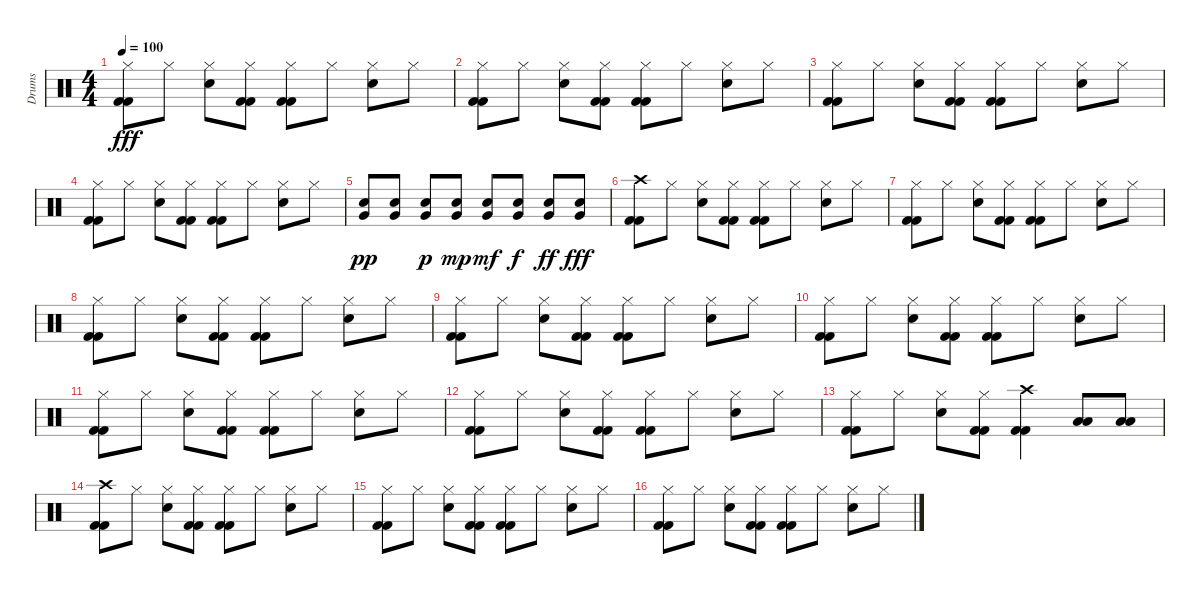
\track ("Drums" "Drums") {instrument percussion}
\staff {score}
\articulation defaults
\ts (4 4)
\tempo 100
\clef neutral
\ks c
("Hi-Hat (closed)" "Kick (hit) 2" "Kick (hit) 2").8{dy fff} "Hi-Hat (closed)".8 ("Hi-Hat (closed)" "Electric Snare (hit)").8 ("Hi-Hat (closed)" "Kick (hit) 2" "Kick (hit) 2").8 ("Hi-Hat (closed)" "Kick (hit) 2" "Kick (hit) 2").8 "Hi-Hat (closed)".8 ("Hi-Hat (closed)" "Electric Snare (hit)").8 "Hi-Hat (closed)".8 |
("Hi-Hat (closed)" "Kick (hit) 2" "Kick (hit) 2").8 "Hi-Hat (closed)".8 ("Hi-Hat (closed)" "Electric Snare (hit)").8 ("Hi-Hat (closed)" "Kick (hit) 2" "Kick (hit) 2").8 ("Hi-Hat (closed)" "Kick (hit) 2" "Kick (hit) 2").8 "Hi-Hat (closed)".8 ("Hi-Hat (closed)" "Electric Snare (hit)").8 "Hi-Hat (closed)".8 |
("Hi-Hat (closed)" "Kick (hit) 2" "Kick (hit) 2").8 "Hi-Hat (closed)".8 ("Hi-Hat (closed)" "Electric Snare (hit)").8 ("Hi-Hat (closed)" "Kick (hit) 2" "Kick (hit) 2").8 ("Hi-Hat (closed)" "Kick (hit) 2" "Kick (hit) 2").8 "Hi-Hat (closed)".8 ("Hi-Hat (closed)" "Electric Snare (hit)").8 "Hi-Hat (closed)".8 |
("Hi-Hat (closed)" "Kick (hit) 2" "Kick (hit) 2").8 "Hi-Hat (closed)".8 ("Hi-Hat (closed)" "Electric Snare (hit)").8 ("Hi-Hat (closed)" "Kick (hit) 2" "Kick (hit) 2").8 ("Hi-Hat (closed)" "Kick (hit) 2" "Kick (hit) 2").8 "Hi-Hat (closed)".8 ("Hi-Hat (closed)" "Electric Snare (hit)").8 "Hi-Hat (closed)".8 |
("Very Low Tom (hit)" "Electric Snare (hit)").8{dy pp} ("Very Low Tom (hit)" "Electric Snare (hit)").8 ("Very Low Tom (hit)" "Electric Snare (hit)").8{dy p} ("Very Low Tom (hit)" "Electric Snare (hit)").8{dy mp} ("Very Low Tom (hit)" "Electric Snare (hit)").8{dy mf} ("Very Low Tom (hit)" "Electric Snare (hit)").8{dy f} ("Very Low Tom (hit)" "Electric Snare (hit)").8{dy ff} ("Very Low Tom (hit)" "Electric Snare (hit)").8{dy fff} |
("Crash high (hit)" "Kick (hit) 2" "Kick (hit) 2").8 "Hi-Hat (closed)".8 ("Hi-Hat (closed)" "Electric Snare (hit)").8 ("Hi-Hat (closed)" "Kick (hit) 2" "Kick (hit) 2").8 ("Hi-Hat (closed)" "Kick (hit) 2" "Kick (hit) 2").8 "Hi-Hat (closed)".8 ("Hi-Hat (closed)" "Electric Snare (hit)").8 "Hi-Hat (closed)".8 |
("Hi-Hat (closed)" "Kick (hit) 2" "Kick (hit) 2").8 "Hi-Hat (closed)".8 ("Hi-Hat (closed)" "Electric Snare (hit)").8 ("Hi-Hat (closed)" "Kick (hit) 2" "Kick (hit) 2").8 ("Hi-Hat (closed)" "Kick (hit) 2" "Kick (hit) 2").8 "Hi-Hat (closed)".8 ("Hi-Hat (closed)" "Electric Snare (hit)").8 "Hi-Hat (closed)".8 |
("Hi-Hat (closed)" "Kick (hit) 2" "Kick (hit) 2").8 "Hi-Hat (closed)".8 ("Hi-Hat (closed)" "Electric Snare (hit)").8 ("Hi-Hat (closed)" "Kick (hit) 2" "Kick (hit) 2").8 ("Hi-Hat (closed)" "Kick (hit) 2" "Kick (hit) 2").8 "Hi-Hat (closed)".8 ("Hi-Hat (closed)" "Electric Snare (hit)").8 "Hi-Hat (closed)".8 |
("Hi-Hat (closed)" "Kick (hit) 2" "Kick (hit) 2").8 "Hi-Hat (closed)".8 ("Hi-Hat (closed)" "Electric Snare (hit)").8 ("Hi-Hat (closed)" "Kick (hit) 2" "Kick (hit) 2").8 ("Hi-Hat (closed)" "Kick (hit) 2" "Kick (hit) 2").8 "Hi-Hat (closed)".8 ("Hi-Hat (closed)" "Electric Snare (hit)").8 "Hi-Hat (closed)".8 |
("Hi-Hat (closed)" "Kick (hit) 2" "Kick (hit) 2").8 "Hi-Hat (closed)".8 ("Hi-Hat (closed)" "Electric Snare (hit)").8 ("Hi-Hat (closed)" "Kick (hit) 2" "Kick (hit) 2").8 ("Hi-Hat (closed)" "Kick (hit) 2" "Kick (hit) 2").8 "Hi-Hat (closed)".8 ("Hi-Hat (closed)" "Electric Snare (hit)").8 "Hi-Hat (closed)".8 |
("Hi-Hat (closed)" "Kick (hit) 2" "Kick (hit) 2").8 "Hi-Hat (closed)".8 ("Hi-Hat (closed)" "Electric Snare (hit)").8 ("Hi-Hat (closed)" "Kick (hit) 2" "Kick (hit) 2").8 ("Hi-Hat (closed)" "Kick (hit) 2" "Kick (hit) 2").8 "Hi-Hat (closed)".8 ("Hi-Hat (closed)" "Electric Snare (hit)").8 "Hi-Hat (closed)".8 |
("Hi-Hat (closed)" "Kick (hit) 2" "Kick (hit) 2").8 "Hi-Hat (closed)".8 ("Hi-Hat (closed)" "Electric Snare (hit)").8 ("Hi-Hat (closed)" "Kick (hit) 2" "Kick (hit) 2").8 ("Hi-Hat (closed)" "Kick (hit) 2" "Kick (hit) 2").8 "Hi-Hat (closed)".8 ("Hi-Hat (closed)" "Electric Snare (hit)").8 "Hi-Hat (closed)".8 |
("Hi-Hat (closed)" "Kick (hit) 2" "Kick (hit) 2").8 "Hi-Hat (closed)".8 ("Hi-Hat (closed)" "Electric Snare (hit)").8 ("Hi-Hat (closed)" "Kick (hit) 2" "Kick (hit) 2").8 ("Crash high (hit)" "Kick (hit) 2" "Kick (hit) 2").4 ("Low Tom (hit)" "Low Tom (hit)").8 ("Low Tom (hit)" "Low Tom (hit)").8 |
("Crash high (hit)" "Kick (hit) 2" "Kick (hit) 2").8 "Hi-Hat (closed)".8 ("Hi-Hat (closed)" "Electric Snare (hit)").8 ("Hi-Hat (closed)" "Kick (hit) 2" "Kick (hit) 2").8 ("Hi-Hat (closed)" "Kick (hit) 2" "Kick (hit) 2").8 "Hi-Hat (closed)".8 ("Hi-Hat (closed)" "Electric Snare (hit)").8 "Hi-Hat (closed)".8 |
("Hi-Hat (closed)" "Kick (hit) 2" "Kick (hit) 2").8 "Hi-Hat (closed)".8 ("Hi-Hat (closed)" "Electric Snare (hit)").8 ("Hi-Hat (closed)" "Kick (hit) 2" "Kick (hit) 2").8 ("Hi-Hat (closed)" "Kick (hit) 2" "Kick (hit) 2").8 "Hi-Hat (closed)".8 ("Hi-Hat (closed)" "Electric Snare (hit)").8 "Hi-Hat (closed)".8 |
("Hi-Hat (closed)" "Kick (hit) 2" "Kick (hit) 2").8 "Hi-Hat (closed)".8 ("Hi-Hat (closed)" "Electric Snare (hit)").8 ("Hi-Hat (closed)" "Kick (hit) 2" "Kick (hit) 2").8 ("Hi-Hat (closed)" "Kick (hit) 2" "Kick (hit) 2").8 "Hi-Hat (closed)".8 ("Hi-Hat (closed)" "Electric Snare (hit)").8 "Hi-Hat (closed)".8
